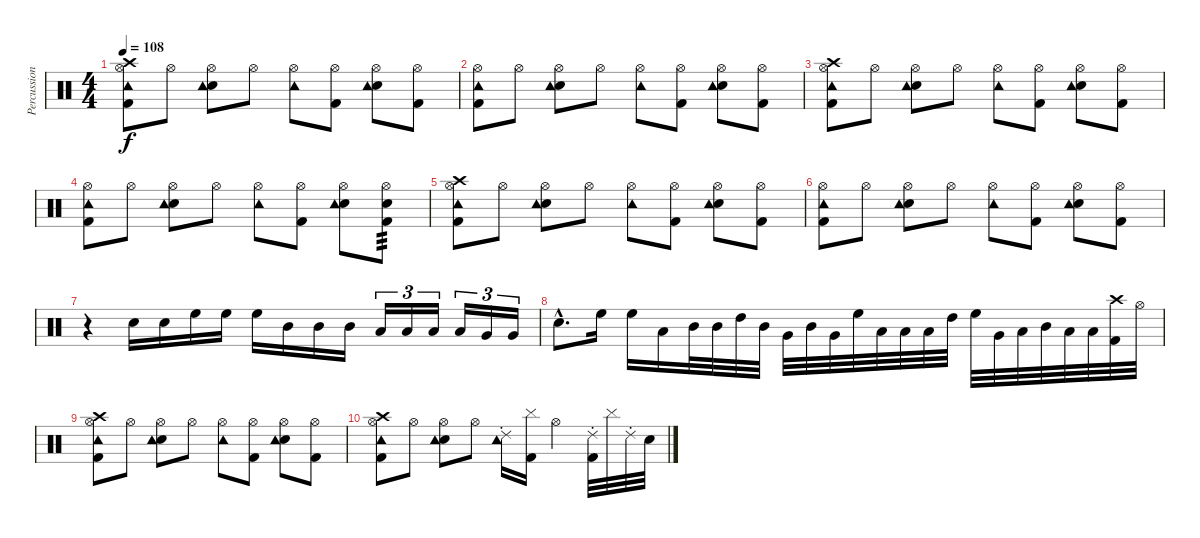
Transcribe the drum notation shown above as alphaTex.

\track ("Percussion" "Percussion") {instrument percussion}
\staff {score}
\articulation defaults
\ts (4 4)
\tempo 108
\clef neutral
\ks c
("Kick (hit) 2" "Hi-Hat (open)" "Tambourine (hit)" "Crash high (hit)").8{dy f} "Hi-Hat (open)".8 ("Hi-Hat (open)" "Electric Snare (hit)" "Tambourine (hit)").8 "Hi-Hat (open)".8 ("Hi-Hat (open)" "Tambourine (hit)").8 ("Hi-Hat (open)" "Kick (hit) 2").8 ("Hi-Hat (open)" "Electric Snare (hit)" "Tambourine (hit)").8 ("Hi-Hat (open)" "Kick (hit) 2").8 |
("Kick (hit) 2" "Hi-Hat (open)" "Tambourine (hit)").8 "Hi-Hat (open)".8 ("Hi-Hat (open)" "Electric Snare (hit)" "Tambourine (hit)").8 "Hi-Hat (open)".8 ("Hi-Hat (open)" "Tambourine (hit)").8 ("Hi-Hat (open)" "Kick (hit) 2").8 ("Hi-Hat (open)" "Electric Snare (hit)" "Tambourine (hit)").8 ("Hi-Hat (open)" "Kick (hit) 2").8 |
("Kick (hit) 2" "Hi-Hat (open)" "Tambourine (hit)" "Crash high (hit)").8 "Hi-Hat (open)".8 ("Hi-Hat (open)" "Electric Snare (hit)" "Tambourine (hit)").8 "Hi-Hat (open)".8 ("Hi-Hat (open)" "Tambourine (hit)").8 ("Hi-Hat (open)" "Kick (hit) 2").8 ("Hi-Hat (open)" "Electric Snare (hit)" "Tambourine (hit)").8 ("Hi-Hat (open)" "Kick (hit) 2").8 |
("Kick (hit) 2" "Hi-Hat (open)" "Tambourine (hit)").8 "Hi-Hat (open)".8 ("Hi-Hat (open)" "Electric Snare (hit)" "Tambourine (hit)").8 "Hi-Hat (open)".8 ("Hi-Hat (open)" "Tambourine (hit)").8 ("Hi-Hat (open)" "Kick (hit) 2").8 ("Hi-Hat (open)" "Electric Snare (hit)" "Tambourine (hit)").8 ("Hi-Hat (open)" "Kick (hit) 2" "Electric Snare (hit)").8{tp 3} |
("Kick (hit) 2" "Hi-Hat (open)" "Tambourine (hit)" "Crash high (hit)").8 "Hi-Hat (open)".8 ("Hi-Hat (open)" "Electric Snare (hit)" "Tambourine (hit)").8 "Hi-Hat (open)".8 ("Hi-Hat (open)" "Tambourine (hit)").8 ("Hi-Hat (open)" "Kick (hit) 2").8 ("Hi-Hat (open)" "Electric Snare (hit)" "Tambourine (hit)").8 ("Hi-Hat (open)" "Kick (hit) 2").8 |
("Kick (hit) 2" "Hi-Hat (open)" "Tambourine (hit)").8 "Hi-Hat (open)".8 ("Hi-Hat (open)" "Electric Snare (hit)" "Tambourine (hit)").8 "Hi-Hat (open)".8 ("Hi-Hat (open)" "Tambourine (hit)").8 ("Hi-Hat (open)" "Kick (hit) 2").8 ("Hi-Hat (open)" "Electric Snare (hit)" "Tambourine (hit)").8 ("Hi-Hat (open)" "Kick (hit) 2").8 |
r.4 "Electric Snare (hit)".16 "Electric Snare (hit)".16 "High Floor Tom (hit)".16 "High Floor Tom (hit)".16 "High Floor Tom (hit)".16 "Mid Tom (hit)".16 "Mid Tom (hit)".16 "Mid Tom (hit)".16 "Low Tom (hit)".16{tu (3 2)} "Low Tom (hit)".16{tu (3 2)} "Low Tom (hit)".16{tu (3 2)} "Low Tom (hit)".16{tu (3 2)} "Very Low Tom (hit)".16{tu (3 2)} "Very Low Tom (hit)".16{tu (3 2)} |
"Electric Snare (hit)"{hac}.8{d} "High Floor Tom (hit)".16 "High Floor Tom (hit)".16 "Low Tom (hit)".16 "Mid Tom (hit)".32 "Mid Tom (hit)".32 "High Tom (hit)".32 "Mid Tom (hit)".32 "Very Low Tom (hit)".32 "Mid Tom (hit)".32 "Very Low Tom (hit)".32 "High Floor Tom (hit)".32 "Low Floor Tom (hit)".32 "Low Tom (hit)".32 "Low Floor Tom (hit)".32 "High Tom (hit)".32 "High Floor Tom (hit)".32 "Very Low Tom (hit)".32 "Low Tom (hit)".32 "Mid Tom (hit)".32 "Low Floor Tom (hit)".32 "Low Tom (hit)".32 ("Crash high (hit)" "Kick (hit) 2").32 "Hi-Hat (open)".32 |
("Kick (hit) 2" "Hi-Hat (open)" "Tambourine (hit)" "Crash high (hit)").8 "Hi-Hat (open)".8 ("Hi-Hat (open)" "Electric Snare (hit)" "Tambourine (hit)").8 "Hi-Hat (open)".8 ("Hi-Hat (open)" "Tambourine (hit)").8 ("Hi-Hat (open)" "Kick (hit) 2").8 ("Hi-Hat (open)" "Electric Snare (hit)" "Tambourine (hit)").8 ("Hi-Hat (open)" "Kick (hit) 2").8 |
("Kick (hit) 2" "Hi-Hat (open)" "Tambourine (hit)" "Crash high (hit)").8 "Hi-Hat (open)".8 ("Hi-Hat (open)" "Electric Snare (hit)" "Tambourine (hit)").8 "Hi-Hat (open)".8 ("Ride (choke) 2" "Tambourine (hit)").16 ("Cymbal (hit)" "Kick (hit) 2").16 "Hi-Hat (open)".4 ("Ride (choke) 2" "Kick (hit) 2").32 "Cymbal (hit)".32 "Ride (choke) 2".32 "Metronome (bell)".32
